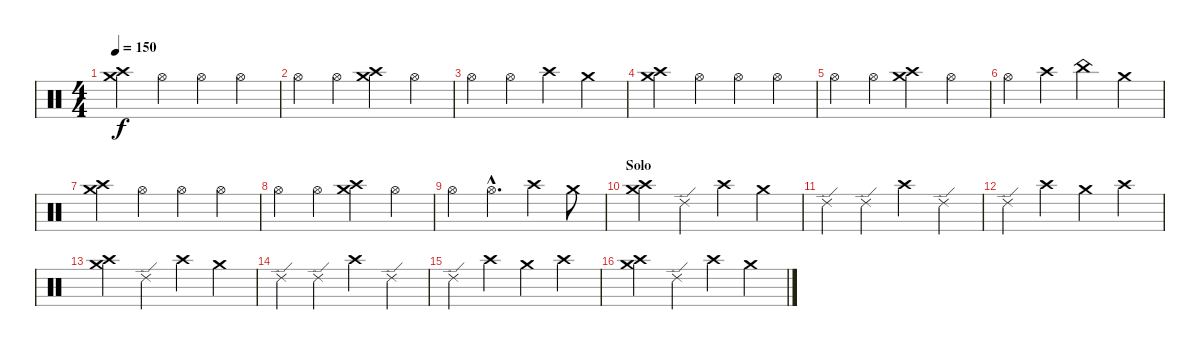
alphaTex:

\track "" {instrument percussion}
\staff {score}
\articulation defaults
\ts (4 4)
\tempo 150
\clef neutral
\ks c
("Crash medium (hit)" "Crash high (hit)").4{dy f} "Hi-Hat (open)".4 "Hi-Hat (open)".4 "Hi-Hat (open)".4 |
"Hi-Hat (open)".4 "Hi-Hat (open)".4 ("Crash medium (hit)" "Crash high (hit)").4 "Hi-Hat (open)".4 |
"Hi-Hat (open)".4 "Hi-Hat (open)".4 "Crash high (hit)".4 "Crash medium (hit)".4 |
("Crash medium (hit)" "Crash high (hit)").4 "Hi-Hat (open)".4 "Hi-Hat (open)".4 "Hi-Hat (open)".4 |
"Hi-Hat (open)".4 "Hi-Hat (open)".4 ("Crash medium (hit)" "Crash high (hit)").4 "Hi-Hat (open)".4 |
"Hi-Hat (open)".4 "Crash high (hit)".4 "China (hit)".4 "Crash medium (hit)".4 |
("Crash medium (hit)" "Crash high (hit)").4 "Hi-Hat (open)".4 "Hi-Hat (open)".4 "Hi-Hat (open)".4 |
"Hi-Hat (open)".4 "Hi-Hat (open)".4 ("Crash medium (hit)" "Crash high (hit)").4 "Hi-Hat (open)".4 |
"Hi-Hat (open)".4 "Hi-Hat (open)"{hac}.4{d} "Crash high (hit)".4 "Crash medium (hit)".8 |
\section ("" "Solo")
("Crash medium (hit)" "Crash high (hit)").4 "Ride (edge) 2".4 "Crash high (hit)".4 "Crash medium (hit)".4 |
"Ride (edge) 2".4 "Ride (edge) 2".4 "Crash high (hit)".4 "Ride (edge) 2".4 |
"Ride (edge) 2".4 "Crash high (hit)".4 "Crash medium (hit)".4 "Crash high (hit)".4 |
("Crash medium (hit)" "Crash high (hit)").4 "Ride (edge) 2".4 "Crash high (hit)".4 "Crash medium (hit)".4 |
"Ride (edge) 2".4 "Ride (edge) 2".4 "Crash high (hit)".4 "Ride (edge) 2".4 |
"Ride (edge) 2".4 "Crash high (hit)".4 "Crash medium (hit)".4 "Crash high (hit)".4 |
("Crash medium (hit)" "Crash high (hit)").4 "Ride (edge) 2".4 "Crash high (hit)".4 "Crash medium (hit)".4
